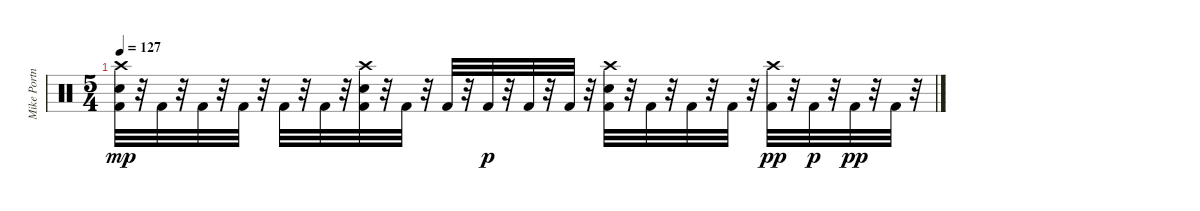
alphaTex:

\track ("Mike Portnoy" "Mike Portn") {instrument percussion}
\staff {score}
\articulation defaults
\ts (5 4)
\tempo 127
\clef neutral
\ks c
("Kick (hit) 2" "Snare (hit) 2" "Crash high (hit)").32{dy mp volume 1} r.32 "Kick (hit) 2".32 r.32 "Kick (hit) 2".32 r.32 "Kick (hit) 2".32 r.32 "Kick (hit) 2".32{volume 1} r.32 "Kick (hit) 2".32 r.32 ("Kick (hit) 2" "Snare (hit) 2" "Crash high (hit)").32 r.32 "Kick (hit) 2".32 r.32 "Kick (hit) 2".32{volume 0} r.32 "Kick (hit) 2".32{dy p} r.32 "Kick (hit) 2".32 r.32 "Kick (hit) 2".32 r.32 ("Kick (hit) 2" "Snare (hit) 2" "Crash high (hit)").32{volume 0} r.32 "Kick (hit) 2".32 r.32 "Kick (hit) 2".32 r.32 "Kick (hit) 2".32 r.32 ("Kick (hit) 2" "Crash high (hit)").32{dy pp} r.32 "Kick (hit) 2".32{dy p} r.32 "Kick (hit) 2".32{dy pp} r.32 "Kick (hit) 2".32 r.32
